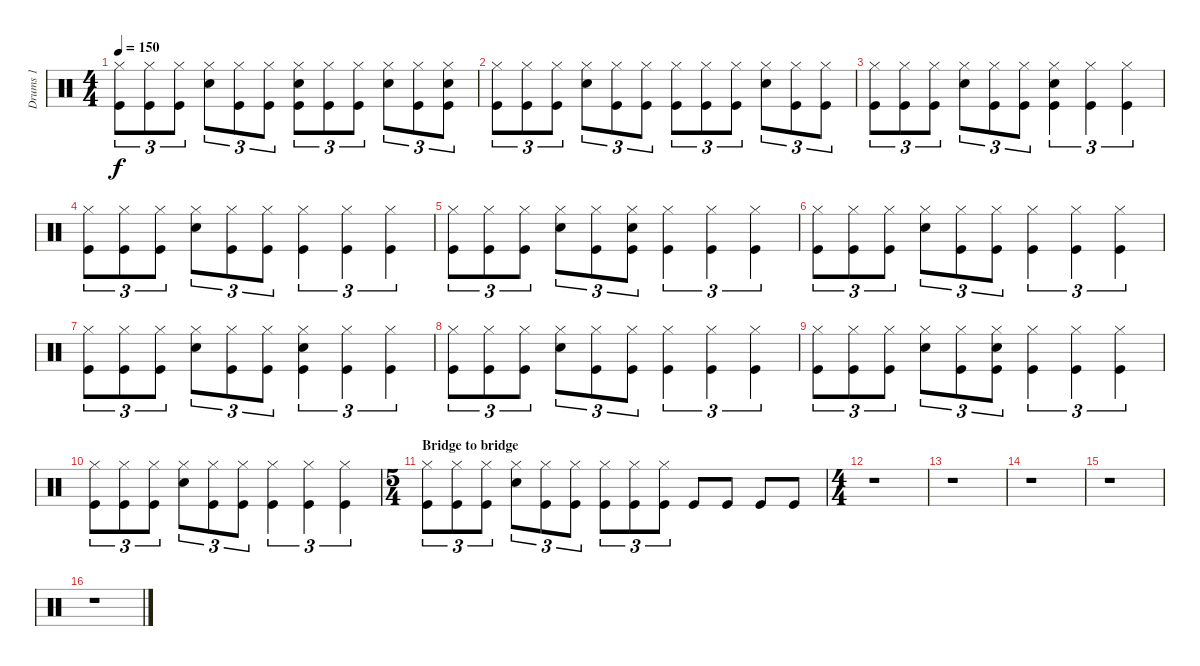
\track ("Drums 1" "Drums 1") {instrument percussion}
\staff {score}
\articulation defaults
\ts (4 4)
\tempo 150
\clef neutral
\ks c
("Hi-Hat (closed)" "Kick (hit)").8{tu (3 2) dy f} ("Hi-Hat (closed)" "Kick (hit)").8{tu (3 2)} ("Hi-Hat (closed)" "Kick (hit)").8{tu (3 2)} ("Hi-Hat (closed)" "Snare (hit) 2").8{tu (3 2)} ("Hi-Hat (closed)" "Kick (hit)").8{tu (3 2)} ("Hi-Hat (closed)" "Kick (hit)").8{tu (3 2)} ("Snare (hit) 2" "Hi-Hat (closed)" "Kick (hit)").8{tu (3 2)} ("Hi-Hat (closed)" "Kick (hit)").8{tu (3 2)} ("Hi-Hat (closed)" "Kick (hit)").8{tu (3 2)} ("Hi-Hat (closed)" "Snare (hit) 2").8{tu (3 2)} ("Hi-Hat (closed)" "Kick (hit)").8{tu (3 2)} ("Snare (hit) 2" "Hi-Hat (closed)" "Kick (hit)").8{tu (3 2)} |
("Hi-Hat (closed)" "Kick (hit)").8{tu (3 2)} ("Hi-Hat (closed)" "Kick (hit)").8{tu (3 2)} ("Hi-Hat (closed)" "Kick (hit)").8{tu (3 2)} ("Hi-Hat (closed)" "Snare (hit) 2").8{tu (3 2)} ("Hi-Hat (closed)" "Kick (hit)").8{tu (3 2)} ("Hi-Hat (closed)" "Kick (hit)").8{tu (3 2)} ("Hi-Hat (closed)" "Kick (hit)").8{tu (3 2)} ("Hi-Hat (closed)" "Kick (hit)").8{tu (3 2)} ("Hi-Hat (closed)" "Kick (hit)").8{tu (3 2)} ("Hi-Hat (closed)" "Snare (hit) 2").8{tu (3 2)} ("Hi-Hat (closed)" "Kick (hit)").8{tu (3 2)} ("Hi-Hat (closed)" "Kick (hit)").8{tu (3 2)} |
("Hi-Hat (closed)" "Kick (hit)").8{tu (3 2)} ("Hi-Hat (closed)" "Kick (hit)").8{tu (3 2)} ("Hi-Hat (closed)" "Kick (hit)").8{tu (3 2)} ("Hi-Hat (closed)" "Snare (hit) 2").8{tu (3 2)} ("Hi-Hat (closed)" "Kick (hit)").8{tu (3 2)} ("Hi-Hat (closed)" "Kick (hit)").8{tu (3 2)} ("Snare (hit) 2" "Hi-Hat (closed)" "Kick (hit)").4{tu (3 2)} ("Hi-Hat (closed)" "Kick (hit)").4{tu (3 2)} ("Hi-Hat (closed)" "Kick (hit)").4{tu (3 2)} |
("Hi-Hat (closed)" "Kick (hit)").8{tu (3 2)} ("Hi-Hat (closed)" "Kick (hit)").8{tu (3 2)} ("Hi-Hat (closed)" "Kick (hit)").8{tu (3 2)} ("Hi-Hat (closed)" "Snare (hit) 2").8{tu (3 2)} ("Hi-Hat (closed)" "Kick (hit)").8{tu (3 2)} ("Hi-Hat (closed)" "Kick (hit)").8{tu (3 2)} ("Hi-Hat (closed)" "Kick (hit)").4{tu (3 2)} ("Hi-Hat (closed)" "Kick (hit)").4{tu (3 2)} ("Hi-Hat (closed)" "Kick (hit)").4{tu (3 2)} |
("Hi-Hat (closed)" "Kick (hit)").8{tu (3 2)} ("Hi-Hat (closed)" "Kick (hit)").8{tu (3 2)} ("Hi-Hat (closed)" "Kick (hit)").8{tu (3 2)} ("Hi-Hat (closed)" "Snare (hit) 2").8{tu (3 2)} ("Hi-Hat (closed)" "Kick (hit)").8{tu (3 2)} ("Snare (hit) 2" "Hi-Hat (closed)" "Kick (hit)").8{tu (3 2)} ("Hi-Hat (closed)" "Kick (hit)").4{tu (3 2)} ("Hi-Hat (closed)" "Kick (hit)").4{tu (3 2)} ("Hi-Hat (closed)" "Kick (hit)").4{tu (3 2)} |
("Hi-Hat (closed)" "Kick (hit)").8{tu (3 2)} ("Hi-Hat (closed)" "Kick (hit)").8{tu (3 2)} ("Hi-Hat (closed)" "Kick (hit)").8{tu (3 2)} ("Hi-Hat (closed)" "Snare (hit) 2").8{tu (3 2)} ("Hi-Hat (closed)" "Kick (hit)").8{tu (3 2)} ("Hi-Hat (closed)" "Kick (hit)").8{tu (3 2)} ("Hi-Hat (closed)" "Kick (hit)").4{tu (3 2)} ("Hi-Hat (closed)" "Kick (hit)").4{tu (3 2)} ("Hi-Hat (closed)" "Kick (hit)").4{tu (3 2)} |
("Hi-Hat (closed)" "Kick (hit)").8{tu (3 2)} ("Hi-Hat (closed)" "Kick (hit)").8{tu (3 2)} ("Hi-Hat (closed)" "Kick (hit)").8{tu (3 2)} ("Hi-Hat (closed)" "Snare (hit) 2").8{tu (3 2)} ("Hi-Hat (closed)" "Kick (hit)").8{tu (3 2)} ("Hi-Hat (closed)" "Kick (hit)").8{tu (3 2)} ("Snare (hit) 2" "Hi-Hat (closed)" "Kick (hit)").4{tu (3 2)} ("Hi-Hat (closed)" "Kick (hit)").4{tu (3 2)} ("Hi-Hat (closed)" "Kick (hit)").4{tu (3 2)} |
("Hi-Hat (closed)" "Kick (hit)").8{tu (3 2)} ("Hi-Hat (closed)" "Kick (hit)").8{tu (3 2)} ("Hi-Hat (closed)" "Kick (hit)").8{tu (3 2)} ("Hi-Hat (closed)" "Snare (hit) 2").8{tu (3 2)} ("Hi-Hat (closed)" "Kick (hit)").8{tu (3 2)} ("Hi-Hat (closed)" "Kick (hit)").8{tu (3 2)} ("Hi-Hat (closed)" "Kick (hit)").4{tu (3 2)} ("Hi-Hat (closed)" "Kick (hit)").4{tu (3 2)} ("Hi-Hat (closed)" "Kick (hit)").4{tu (3 2)} |
("Hi-Hat (closed)" "Kick (hit)").8{tu (3 2)} ("Hi-Hat (closed)" "Kick (hit)").8{tu (3 2)} ("Hi-Hat (closed)" "Kick (hit)").8{tu (3 2)} ("Hi-Hat (closed)" "Snare (hit) 2").8{tu (3 2)} ("Hi-Hat (closed)" "Kick (hit)").8{tu (3 2)} ("Snare (hit) 2" "Hi-Hat (closed)" "Kick (hit)").8{tu (3 2)} ("Hi-Hat (closed)" "Kick (hit)").4{tu (3 2)} ("Hi-Hat (closed)" "Kick (hit)").4{tu (3 2)} ("Hi-Hat (closed)" "Kick (hit)").4{tu (3 2)} |
("Hi-Hat (closed)" "Kick (hit)").8{tu (3 2)} ("Hi-Hat (closed)" "Kick (hit)").8{tu (3 2)} ("Hi-Hat (closed)" "Kick (hit)").8{tu (3 2)} ("Hi-Hat (closed)" "Snare (hit) 2").8{tu (3 2)} ("Hi-Hat (closed)" "Kick (hit)").8{tu (3 2)} ("Hi-Hat (closed)" "Kick (hit)").8{tu (3 2)} ("Hi-Hat (closed)" "Kick (hit)").4{tu (3 2)} ("Hi-Hat (closed)" "Kick (hit)").4{tu (3 2)} ("Hi-Hat (closed)" "Kick (hit)").4{tu (3 2)} |
\ts (5 4)
\section ("" "Bridge to bridge")
("Hi-Hat (closed)" "Kick (hit)").8{tu (3 2)} ("Hi-Hat (closed)" "Kick (hit)").8{tu (3 2)} ("Hi-Hat (closed)" "Kick (hit)").8{tu (3 2)} ("Hi-Hat (closed)" "Snare (hit) 2").8{tu (3 2)} ("Hi-Hat (closed)" "Kick (hit)").8{tu (3 2)} ("Hi-Hat (closed)" "Kick (hit)").8{tu (3 2)} ("Hi-Hat (closed)" "Kick (hit)").8{tu (3 2)} ("Hi-Hat (closed)" "Kick (hit)").8{tu (3 2)} ("Hi-Hat (closed)" "Kick (hit)").8{tu (3 2)} "Kick (hit)".8 "Kick (hit)".8 "Kick (hit)".8 "Kick (hit)".8 |
\ts (4 4)
r.1 |
r.1 |
r.1 |
r.1 |
r.1
